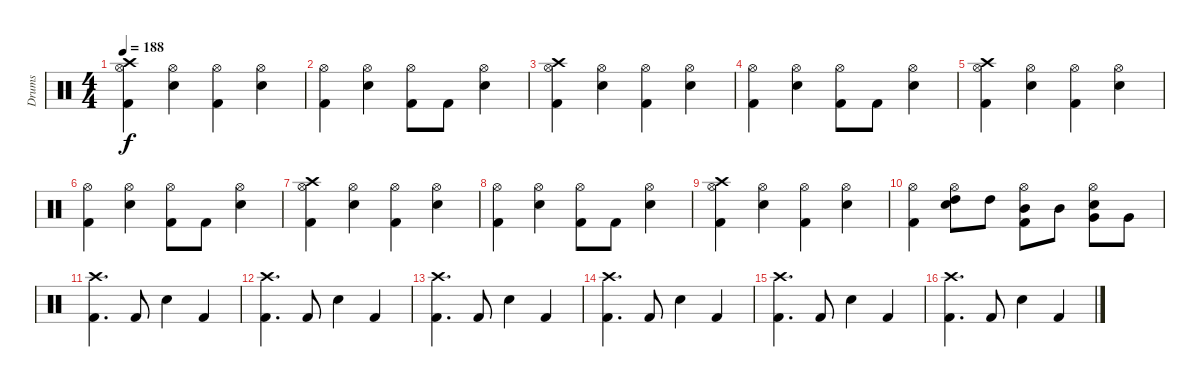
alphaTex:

\track ("Drums" "Drums") {instrument percussion}
\staff {score}
\articulation defaults
\ts (4 4)
\tempo 188
\clef neutral
\ks c
("Crash high (hit)" "Hi-Hat (open)" "Kick (hit) 2").4{dy f} ("Hi-Hat (open)" "Snare (hit) 2").4 ("Hi-Hat (open)" "Kick (hit) 2").4 ("Hi-Hat (open)" "Snare (hit) 2").4 |
("Hi-Hat (open)" "Kick (hit) 2").4 ("Hi-Hat (open)" "Snare (hit) 2").4 ("Hi-Hat (open)" "Kick (hit) 2").8 "Kick (hit) 2".8 ("Hi-Hat (open)" "Snare (hit) 2").4 |
("Crash high (hit)" "Hi-Hat (open)" "Kick (hit) 2").4 ("Hi-Hat (open)" "Snare (hit) 2").4 ("Hi-Hat (open)" "Kick (hit) 2").4 ("Hi-Hat (open)" "Snare (hit) 2").4 |
("Hi-Hat (open)" "Kick (hit) 2").4 ("Hi-Hat (open)" "Snare (hit) 2").4 ("Hi-Hat (open)" "Kick (hit) 2").8 "Kick (hit) 2".8 ("Hi-Hat (open)" "Snare (hit) 2").4 |
("Crash high (hit)" "Hi-Hat (open)" "Kick (hit) 2").4 ("Hi-Hat (open)" "Snare (hit) 2").4 ("Hi-Hat (open)" "Kick (hit) 2").4 ("Hi-Hat (open)" "Snare (hit) 2").4 |
("Hi-Hat (open)" "Kick (hit) 2").4 ("Hi-Hat (open)" "Snare (hit) 2").4 ("Hi-Hat (open)" "Kick (hit) 2").8 "Kick (hit) 2".8 ("Hi-Hat (open)" "Snare (hit) 2").4 |
("Crash high (hit)" "Hi-Hat (open)" "Kick (hit) 2").4 ("Hi-Hat (open)" "Snare (hit) 2").4 ("Hi-Hat (open)" "Kick (hit) 2").4 ("Hi-Hat (open)" "Snare (hit) 2").4 |
("Hi-Hat (open)" "Kick (hit) 2").4 ("Hi-Hat (open)" "Snare (hit) 2").4 ("Hi-Hat (open)" "Kick (hit) 2").8 "Kick (hit) 2".8 ("Hi-Hat (open)" "Snare (hit) 2").4 |
("Crash high (hit)" "Hi-Hat (open)" "Kick (hit) 2").4 ("Hi-Hat (open)" "Snare (hit) 2").4 ("Hi-Hat (open)" "Kick (hit) 2").4 ("Hi-Hat (open)" "Snare (hit) 2").4 |
("Hi-Hat (open)" "Kick (hit) 2").4 ("High Tom (hit)" "Hi-Hat (open)" "Snare (hit) 2").8 "High Tom (hit)".8 ("Mid Tom (hit)" "Hi-Hat (open)" "Kick (hit) 2").8 "Mid Tom (hit)".8 ("Very Low Tom (hit)" "Hi-Hat (open)" "Snare (hit) 2").8 "Very Low Tom (hit)".8 |
("Crash high (hit)" "Kick (hit) 2").4{d} "Kick (hit) 2".8 "Snare (hit) 2".4 "Kick (hit) 2".4 |
("Crash high (hit)" "Kick (hit) 2").4{d} "Kick (hit) 2".8 "Snare (hit) 2".4 "Kick (hit) 2".4 |
("Crash high (hit)" "Kick (hit) 2").4{d} "Kick (hit) 2".8 "Snare (hit) 2".4 "Kick (hit) 2".4 |
("Crash high (hit)" "Kick (hit) 2").4{d} "Kick (hit) 2".8 "Snare (hit) 2".4 "Kick (hit) 2".4 |
("Crash high (hit)" "Kick (hit) 2").4{d} "Kick (hit) 2".8 "Snare (hit) 2".4 "Kick (hit) 2".4 |
("Crash high (hit)" "Kick (hit) 2").4{d} "Kick (hit) 2".8 "Snare (hit) 2".4 "Kick (hit) 2".4
